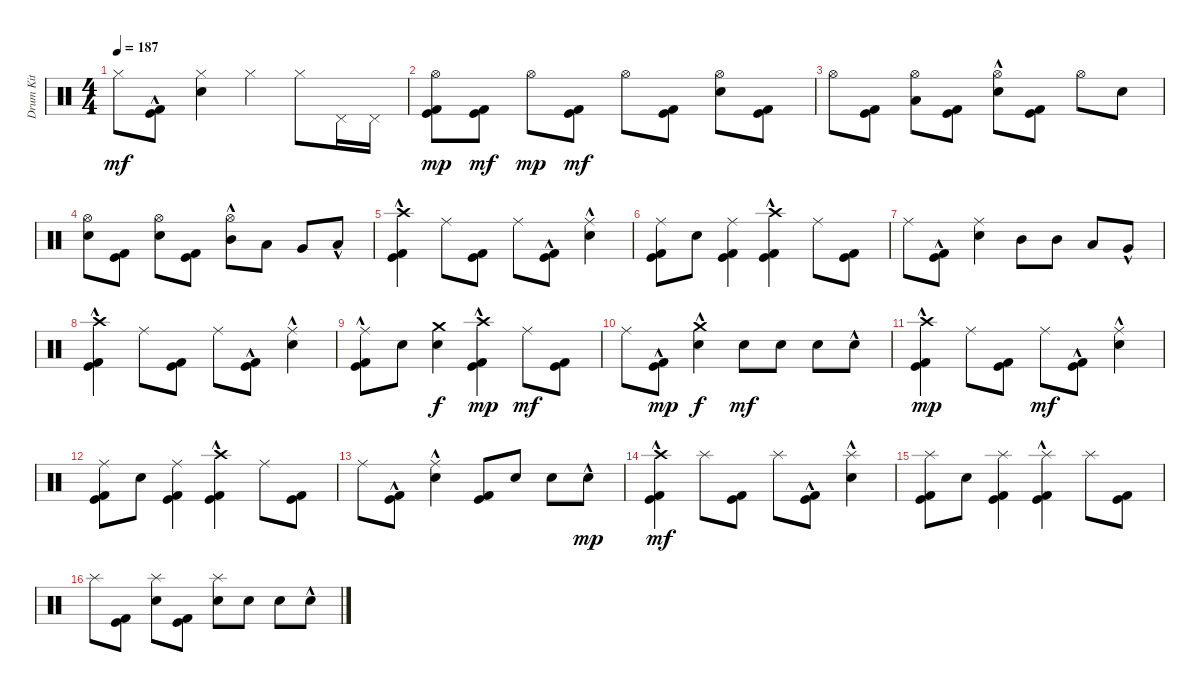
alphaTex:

\track ("Drum Kit" "Drum Kit") {instrument percussion}
\staff {score}
\articulation defaults
\ts (4 4)
\tempo 187
\clef neutral
\ks c "Hi-Hat (closed)".8{dy mf}
("Kick (hit) 2"{hac} "Kick (hit)"{hac}).8 ("Electric Snare (hit)" "Hi-Hat (closed)").4 "Hi-Hat (closed)".4 "Hi-Hat (closed)".8 "Pedal Hi-Hat (hit)".16 "Pedal Hi-Hat (hit)".16 |
("Kick (hit) 2" "Kick (hit)" "Hi-Hat (open)").8{dy mp} ("Kick (hit) 2" "Kick (hit)").8{dy mf} "Hi-Hat (open)".8{dy mp} ("Kick (hit) 2" "Kick (hit)").8{dy mf} "Hi-Hat (open)".8 ("Kick (hit) 2" "Kick (hit)").8 ("Electric Snare (hit)" "Hi-Hat (open)").8 ("Kick (hit) 2" "Kick (hit)").8 |
"Hi-Hat (open)".8 ("Kick (hit) 2" "Kick (hit)").8 ("Low Tom (hit)" "Hi-Hat (open)").8 ("Kick (hit) 2" "Kick (hit)").8 ("Electric Snare (hit)"{hac} "Hi-Hat (open)").8 ("Kick (hit) 2" "Kick (hit)").8 "Hi-Hat (open)".8 "Electric Snare (hit)".8 |
("Electric Snare (hit)" "Hi-Hat (open)").8 ("Kick (hit) 2" "Kick (hit)").8 ("Electric Snare (hit)" "Hi-Hat (open)").8 ("Kick (hit) 2" "Kick (hit)").8 ("Mid Tom (hit)" "Hi-Hat (open)"{hac}).8 "Low Tom (hit)".8 "Very Low Tom (hit)".8 "Low Floor Tom (hit)"{hac}.8 |
("Kick (hit) 2"{hac} "Kick (hit)"{hac} "Crash high (hit)").4 "Ride (middle)".8 ("Kick (hit) 2" "Kick (hit)").8 "Ride (middle)".8 ("Kick (hit) 2"{hac} "Kick (hit)"{hac}).8 ("Electric Snare (hit)"{hac} "Ride (middle)").4 |
("Kick (hit) 2" "Kick (hit)" "Ride (middle)").8 "Electric Snare (hit)".8 ("Kick (hit) 2" "Kick (hit)" "Ride (middle)").4 ("Kick (hit) 2"{hac} "Kick (hit)"{hac} "Crash high (hit)").4 "Ride (middle)".8 ("Kick (hit) 2" "Kick (hit)").8 |
"Ride (middle)".8 ("Kick (hit) 2"{hac} "Kick (hit)"{hac}).8 ("Electric Snare (hit)" "Ride (middle)").4 "Mid Tom (hit)".8 "Mid Tom (hit)".8 "Low Tom (hit)".8 "Very Low Tom (hit)"{hac}.8 |
("Kick (hit) 2"{hac} "Kick (hit)"{hac} "Crash high (hit)").4 "Ride (middle)".8 ("Kick (hit) 2" "Kick (hit)").8 "Ride (middle)".8 ("Kick (hit) 2"{hac} "Kick (hit)"{hac}).8 ("Electric Snare (hit)"{hac} "Ride (middle)").4 |
("Kick (hit) 2" "Kick (hit)" "Ride (middle)"{hac}).8 "Electric Snare (hit)".8 ("Electric Snare (hit)" "Crash medium (hit)").4{dy f} ("Kick (hit) 2"{hac} "Kick (hit)"{hac} "Crash high (hit)"{hac}).4{dy mp} "Ride (middle)".8{dy mf} ("Kick (hit) 2" "Kick (hit)").8 |
"Ride (middle)".8 ("Kick (hit) 2"{hac} "Kick (hit)"{hac}).8{dy mp} ("Electric Snare (hit)" "Crash medium (hit)"{hac}).4{dy f} "Electric Snare (hit)".8{dy mf} "Electric Snare (hit)".8 "Electric Snare (hit)".8 "Electric Snare (hit)"{hac}.8 |
("Kick (hit) 2"{hac} "Kick (hit)"{hac} "Crash high (hit)").4{dy mp} "Ride (middle)".8 ("Kick (hit) 2" "Kick (hit)").8 "Ride (middle)".8{dy mf} ("Kick (hit) 2"{hac} "Kick (hit)"{hac}).8 ("Electric Snare (hit)"{hac} "Ride (middle)").4 |
("Kick (hit) 2" "Kick (hit)" "Ride (middle)").8 "Electric Snare (hit)".8 ("Kick (hit) 2" "Kick (hit)" "Ride (middle)").4 ("Kick (hit) 2"{hac} "Kick (hit)"{hac} "Crash high (hit)").4 "Ride (middle)".8 ("Kick (hit) 2" "Kick (hit)").8 |
"Ride (middle)".8 ("Kick (hit) 2"{hac} "Kick (hit)"{hac}).8 ("Electric Snare (hit)"{hac} "Ride (middle)").4 ("Kick (hit) 2" "Kick (hit)").8 "Electric Snare (hit)".8 "Electric Snare (hit)".8 "Electric Snare (hit)"{hac}.8{dy mp} |
("Kick (hit) 2"{hac} "Kick (hit)"{hac} "Crash high (hit)").4{dy mf} "Splash (hit)".8 ("Kick (hit) 2" "Kick (hit)").8 "Splash (hit)".8 ("Kick (hit) 2"{hac} "Kick (hit)"{hac}).8 ("Electric Snare (hit)"{hac} "Splash (hit)").4 |
("Kick (hit) 2" "Kick (hit)" "Splash (hit)").8 "Electric Snare (hit)".8 ("Kick (hit) 2" "Kick (hit)" "Splash (hit)").4 ("Kick (hit) 2"{hac} "Kick (hit)"{hac} "Splash (hit)").4 "Splash (hit)".8 ("Kick (hit) 2" "Kick (hit)").8 |
"Splash (hit)".8 ("Kick (hit) 2" "Kick (hit)").8 ("Electric Snare (hit)" "Splash (hit)").8 ("Kick (hit) 2" "Kick (hit)").8 ("Electric Snare (hit)" "Splash (hit)").8 "Electric Snare (hit)".8 "Electric Snare (hit)".8 "Electric Snare (hit)"{hac}.8
